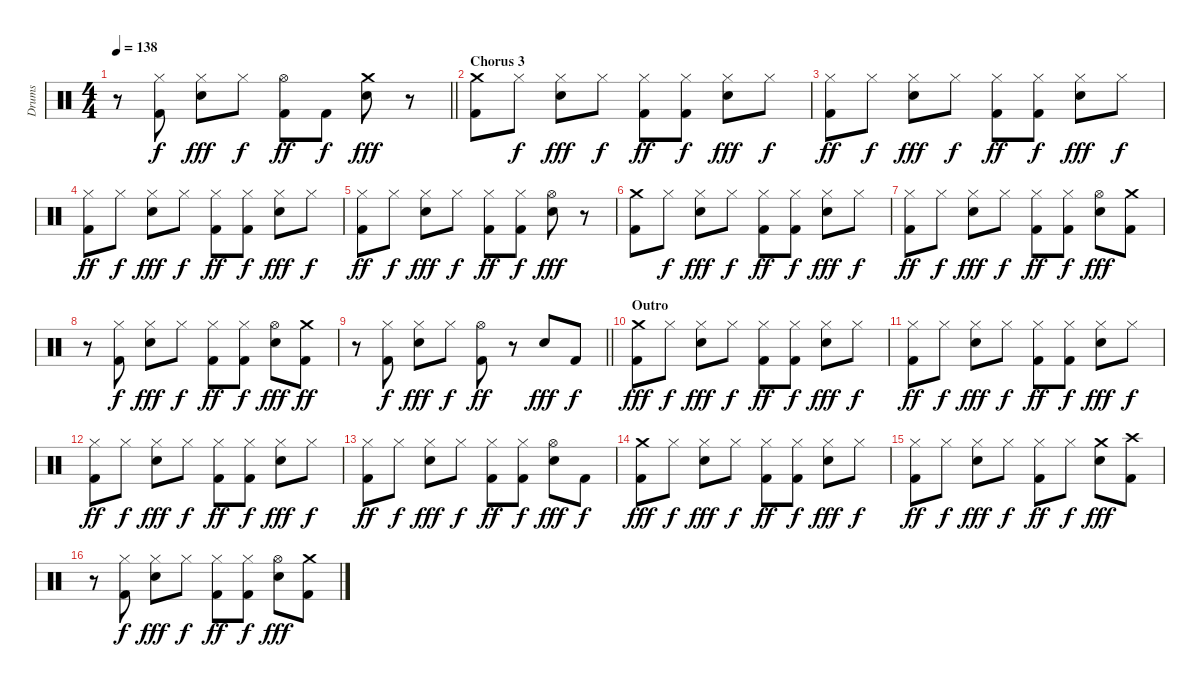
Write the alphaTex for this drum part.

\track ("Drums" "Drums") {instrument percussion}
\staff {score}
\articulation defaults
\ts (4 4)
\tempo 138
\clef neutral
\barLineRight lightlight
\ks c
r.8{dy fff} ("Kick (hit) 2" "Hi-Hat (closed)").8{dy f} ("Snare (hit) 2" "Hi-Hat (closed)").8{dy fff} "Hi-Hat (closed)".8{dy f} ("Kick (hit) 2" "Hi-Hat (open)").8{dy ff} "Kick (hit) 2".8{dy f} ("Snare (hit) 2" "Crash medium (hit)").8{dy fff} r.8 |
\section ("" "Chorus 3")
("Kick (hit) 2" "Crash medium (hit)").8 "Hi-Hat (closed)".8{dy f} ("Snare (hit) 2" "Hi-Hat (closed)").8{dy fff} "Hi-Hat (closed)".8{dy f} ("Kick (hit) 2" "Hi-Hat (closed)").8{dy ff} ("Kick (hit) 2" "Hi-Hat (closed)").8{dy f} ("Snare (hit) 2" "Hi-Hat (closed)").8{dy fff} "Hi-Hat (closed)".8{dy f} |
("Kick (hit) 2" "Hi-Hat (closed)").8{dy ff} "Hi-Hat (closed)".8{dy f} ("Snare (hit) 2" "Hi-Hat (closed)").8{dy fff} "Hi-Hat (closed)".8{dy f} ("Kick (hit) 2" "Hi-Hat (closed)").8{dy ff} ("Kick (hit) 2" "Hi-Hat (closed)").8{dy f} ("Snare (hit) 2" "Hi-Hat (closed)").8{dy fff} "Hi-Hat (closed)".8{dy f} |
("Kick (hit) 2" "Hi-Hat (closed)").8{dy ff} "Hi-Hat (closed)".8{dy f} ("Snare (hit) 2" "Hi-Hat (closed)").8{dy fff} "Hi-Hat (closed)".8{dy f} ("Kick (hit) 2" "Hi-Hat (closed)").8{dy ff} ("Kick (hit) 2" "Hi-Hat (closed)").8{dy f} ("Snare (hit) 2" "Hi-Hat (closed)").8{dy fff} "Hi-Hat (closed)".8{dy f} |
("Kick (hit) 2" "Hi-Hat (closed)").8{dy ff} "Hi-Hat (closed)".8{dy f} ("Snare (hit) 2" "Hi-Hat (closed)").8{dy fff} "Hi-Hat (closed)".8{dy f} ("Kick (hit) 2" "Hi-Hat (closed)").8{dy ff} ("Kick (hit) 2" "Hi-Hat (closed)").8{dy f} ("Hi-Hat (open)" "Snare (hit) 2").8{dy fff} r.8 |
("Kick (hit) 2" "Crash medium (hit)").8 "Hi-Hat (closed)".8{dy f} ("Snare (hit) 2" "Hi-Hat (closed)").8{dy fff} "Hi-Hat (closed)".8{dy f} ("Kick (hit) 2" "Hi-Hat (closed)").8{dy ff} ("Kick (hit) 2" "Hi-Hat (closed)").8{dy f} ("Snare (hit) 2" "Hi-Hat (closed)").8{dy fff} "Hi-Hat (closed)".8{dy f} |
("Kick (hit) 2" "Hi-Hat (closed)").8{dy ff} "Hi-Hat (closed)".8{dy f} ("Snare (hit) 2" "Hi-Hat (closed)").8{dy fff} "Hi-Hat (closed)".8{dy f} ("Kick (hit) 2" "Hi-Hat (closed)").8{dy ff} ("Kick (hit) 2" "Hi-Hat (closed)").8{dy f} ("Hi-Hat (open)" "Snare (hit) 2").8{dy fff} ("Kick (hit) 2" "Crash medium (hit)").8 |
r.8 ("Kick (hit) 2" "Hi-Hat (closed)").8{dy f} ("Snare (hit) 2" "Hi-Hat (closed)").8{dy fff} "Hi-Hat (closed)".8{dy f} ("Kick (hit) 2" "Hi-Hat (closed)").8{dy ff} ("Kick (hit) 2" "Hi-Hat (closed)").8{dy f} ("Hi-Hat (open)" "Snare (hit) 2").8{dy fff} ("Crash medium (hit)" "Kick (hit) 2").8{dy ff} |
\barLineRight lightlight
r.8 ("Kick (hit) 2" "Hi-Hat (closed)").8{dy f} ("Snare (hit) 2" "Hi-Hat (closed)").8{dy fff} "Hi-Hat (closed)".8{dy f} ("Hi-Hat (open)" "Kick (hit) 2").8{dy ff} r.8 "Snare (hit) 2".8{dy fff} "Kick (hit) 2".8{dy f} |
\section ("" "Outro")
("Kick (hit) 2" "Crash medium (hit)").8{dy fff} "Hi-Hat (closed)".8{dy f} ("Snare (hit) 2" "Hi-Hat (closed)").8{dy fff} "Hi-Hat (closed)".8{dy f} ("Kick (hit) 2" "Hi-Hat (closed)").8{dy ff} ("Kick (hit) 2" "Hi-Hat (closed)").8{dy f} ("Snare (hit) 2" "Hi-Hat (closed)").8{dy fff} "Hi-Hat (closed)".8{dy f} |
("Kick (hit) 2" "Hi-Hat (closed)").8{dy ff} "Hi-Hat (closed)".8{dy f} ("Snare (hit) 2" "Hi-Hat (closed)").8{dy fff} "Hi-Hat (closed)".8{dy f} ("Kick (hit) 2" "Hi-Hat (closed)").8{dy ff} ("Kick (hit) 2" "Hi-Hat (closed)").8{dy f} ("Snare (hit) 2" "Hi-Hat (closed)").8{dy fff} "Hi-Hat (closed)".8{dy f} |
("Kick (hit) 2" "Hi-Hat (closed)").8{dy ff} "Hi-Hat (closed)".8{dy f} ("Snare (hit) 2" "Hi-Hat (closed)").8{dy fff} "Hi-Hat (closed)".8{dy f} ("Kick (hit) 2" "Hi-Hat (closed)").8{dy ff} ("Kick (hit) 2" "Hi-Hat (closed)").8{dy f} ("Snare (hit) 2" "Hi-Hat (closed)").8{dy fff} "Hi-Hat (closed)".8{dy f} |
("Kick (hit) 2" "Hi-Hat (closed)").8{dy ff} "Hi-Hat (closed)".8{dy f} ("Snare (hit) 2" "Hi-Hat (closed)").8{dy fff} "Hi-Hat (closed)".8{dy f} ("Kick (hit) 2" "Hi-Hat (closed)").8{dy ff} ("Kick (hit) 2" "Hi-Hat (closed)").8{dy f} ("Snare (hit) 2" "Hi-Hat (open)").8{dy fff} "Kick (hit) 2".8{dy f} |
("Kick (hit) 2" "Crash medium (hit)").8{dy fff} "Hi-Hat (closed)".8{dy f} ("Snare (hit) 2" "Hi-Hat (closed)").8{dy fff} "Hi-Hat (closed)".8{dy f} ("Kick (hit) 2" "Hi-Hat (closed)").8{dy ff} ("Kick (hit) 2" "Hi-Hat (closed)").8{dy f} ("Snare (hit) 2" "Hi-Hat (closed)").8{dy fff} "Hi-Hat (closed)".8{dy f} |
("Kick (hit) 2" "Hi-Hat (closed)").8{dy ff} "Hi-Hat (closed)".8{dy f} ("Snare (hit) 2" "Hi-Hat (closed)").8{dy fff} "Hi-Hat (closed)".8{dy f} ("Kick (hit) 2" "Hi-Hat (closed)").8{dy ff} "Hi-Hat (closed)".8{dy f} ("Crash medium (hit)" "Snare (hit) 2").8{dy fff} ("Kick (hit) 2" "Crash high (hit)").8 |
r.8 ("Kick (hit) 2" "Hi-Hat (closed)").8{dy f} ("Snare (hit) 2" "Hi-Hat (closed)").8{dy fff} "Hi-Hat (closed)".8{dy f} ("Kick (hit) 2" "Hi-Hat (closed)").8{dy ff} ("Kick (hit) 2" "Hi-Hat (closed)").8{dy f} ("Hi-Hat (open)" "Snare (hit) 2").8{dy fff} ("Kick (hit) 2" "Crash medium (hit)").8
